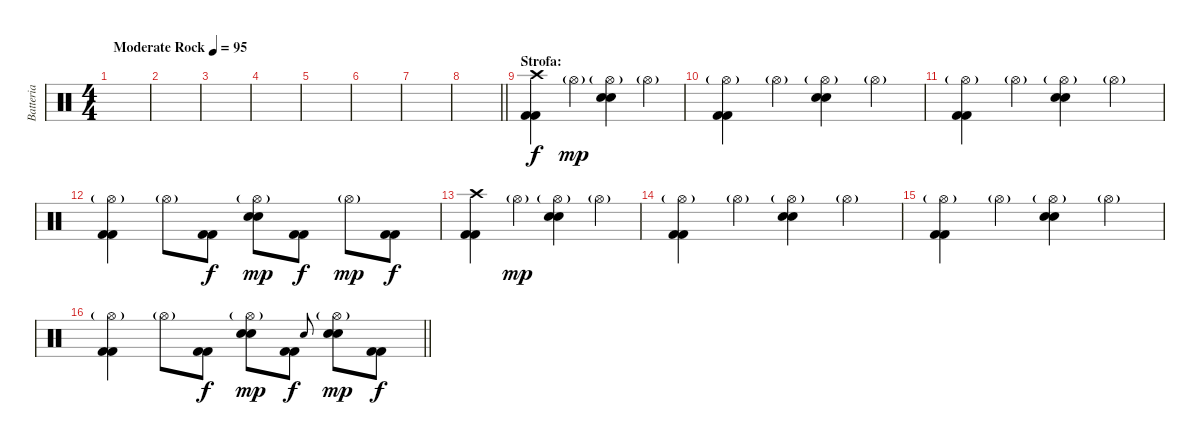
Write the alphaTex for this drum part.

\track ("Batteria" "Batteria") {instrument percussion}
\staff {score}
\articulation defaults
\ts (4 4)
\tempo (95 "Moderate Rock")
\clef neutral
\ks c
|
|
|
|
|
|
|
\barLineRight lightlight
|
\section ("" "Strofa:")
("Kick (hit) 2" "Kick (hit) 2" "Crash high (hit)").4 "Hi-Hat (open)"{g}.4{dy mp} ("Snare (hit) 2" "Snare (hit) 2" "Hi-Hat (open)"{g}).4 "Hi-Hat (open)"{g}.4 |
("Kick (hit) 2" "Kick (hit) 2" "Hi-Hat (open)"{g}).4 "Hi-Hat (open)"{g}.4 ("Snare (hit) 2" "Snare (hit) 2" "Hi-Hat (open)"{g}).4 "Hi-Hat (open)"{g}.4 |
("Kick (hit) 2" "Kick (hit) 2" "Hi-Hat (open)"{g}).4 "Hi-Hat (open)"{g}.4 ("Snare (hit) 2" "Snare (hit) 2" "Hi-Hat (open)"{g}).4 "Hi-Hat (open)"{g}.4 |
("Kick (hit) 2" "Kick (hit) 2" "Hi-Hat (open)"{g}).4 "Hi-Hat (open)"{g}.8 ("Kick (hit) 2" "Kick (hit) 2").8{dy f} ("Snare (hit) 2" "Snare (hit) 2" "Hi-Hat (open)"{g}).8{dy mp} ("Kick (hit) 2" "Kick (hit) 2").8{dy f} "Hi-Hat (open)"{g}.8{dy mp} ("Kick (hit) 2" "Kick (hit) 2").8{dy f} |
("Kick (hit) 2" "Kick (hit) 2" "Crash high (hit)").4 "Hi-Hat (open)"{g}.4{dy mp} ("Snare (hit) 2" "Snare (hit) 2" "Hi-Hat (open)"{g}).4 "Hi-Hat (open)"{g}.4 |
("Kick (hit) 2" "Kick (hit) 2" "Hi-Hat (open)"{g}).4 "Hi-Hat (open)"{g}.4 ("Snare (hit) 2" "Snare (hit) 2" "Hi-Hat (open)"{g}).4 "Hi-Hat (open)"{g}.4 |
("Kick (hit) 2" "Kick (hit) 2" "Hi-Hat (open)"{g}).4 "Hi-Hat (open)"{g}.4 ("Snare (hit) 2" "Snare (hit) 2" "Hi-Hat (open)"{g}).4 "Hi-Hat (open)"{g}.4 |
\barLineRight lightlight
("Kick (hit) 2" "Kick (hit) 2" "Hi-Hat (open)"{g}).4 "Hi-Hat (open)"{g}.8 ("Kick (hit) 2" "Kick (hit) 2").8{dy f} ("Snare (hit) 2" "Snare (hit) 2" "Hi-Hat (open)"{g}).8{dy mp} ("Kick (hit) 2" "Kick (hit) 2").8{dy f} "Snare (hit) 2".8{gr onbeat} ("Snare (hit) 2" "Snare (hit) 2" "Hi-Hat (open)"{g}).8{dy mp} ("Kick (hit) 2" "Kick (hit) 2").8{dy f}
